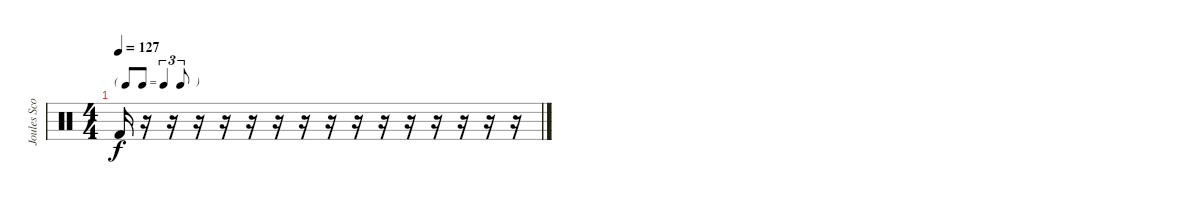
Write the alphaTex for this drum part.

\track ("Joules Scott-Key" "Joules Sco") {instrument percussion}
\staff {score}
\articulation defaults
\ts (4 4)
\tf triplet8th
\tempo 127
\clef neutral
\ks c "Kick (hit) 2".16{dy f}
r.16 r.16 r.16 r.16 r.16 r.16 r.16 r.16 r.16 r.16 r.16 r.16 r.16 r.16 r.16
